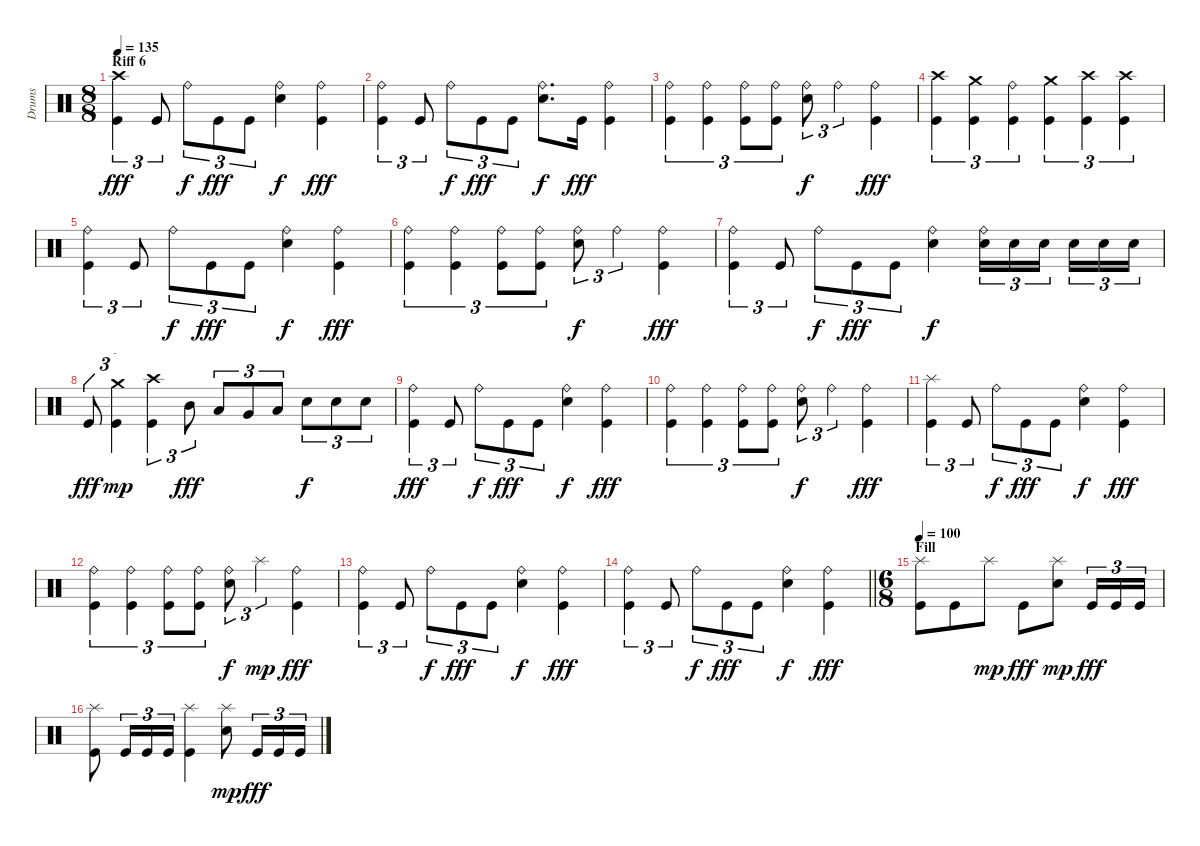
\track ("Drums" "Drums") {instrument percussion}
\staff
\articulation defaults
\ts (8 8)
\section ("" "Riff 6")
\tempo 135
\clef neutral
\ks c
("Crash high (hit)" "Kick (hit)").4{tu (3 2) dy fff} "Kick (hit)".8{tu (3 2)} "Ride (bell)".8{tu (3 2) dy f} "Kick (hit)".8{tu (3 2) dy fff} "Kick (hit)".8{tu (3 2)} ("Ride (bell)" "Snare (hit) 2").4{dy f} ("Ride (bell)" "Kick (hit)").4{dy fff} |
("Ride (bell)" "Kick (hit)").4{tu (3 2)} "Kick (hit)".8{tu (3 2)} "Ride (bell)".8{tu (3 2) dy f} "Kick (hit)".8{tu (3 2) dy fff} "Kick (hit)".8{tu (3 2)} ("Ride (bell)" "Snare (hit) 2").8{d dy f} "Kick (hit)".16{dy fff} ("Ride (bell)" "Kick (hit)").4 |
("Ride (bell)" "Kick (hit)").4{tu (3 2)} ("Ride (bell)" "Kick (hit)").4{tu (3 2)} ("Ride (bell)" "Kick (hit)").8{tu (3 2)} ("Ride (bell)" "Kick (hit)").8{tu (3 2)} ("Ride (bell)" "Snare (hit) 2").8{tu (3 2) dy f} "Ride (bell)".4{tu (3 2)} ("Ride (bell)" "Kick (hit)").4{dy fff} |
("Crash high (hit)" "Kick (hit)").4{tu (3 2)} ("Crash medium (hit)" "Kick (hit)").4{tu (3 2)} ("Ride (bell)" "Kick (hit)").4{tu (3 2)} ("Crash medium (hit)" "Kick (hit)").4{tu (3 2)} ("Crash high (hit)" "Kick (hit)").4{tu (3 2)} ("Crash high (hit)" "Kick (hit)").4{tu (3 2)} |
("Ride (bell)" "Kick (hit)").4{tu (3 2)} "Kick (hit)".8{tu (3 2)} "Ride (bell)".8{tu (3 2) dy f} "Kick (hit)".8{tu (3 2) dy fff} "Kick (hit)".8{tu (3 2)} ("Ride (bell)" "Snare (hit) 2").4{dy f} ("Ride (bell)" "Kick (hit)").4{dy fff} |
("Ride (bell)" "Kick (hit)").4{tu (3 2)} ("Ride (bell)" "Kick (hit)").4{tu (3 2)} ("Ride (bell)" "Kick (hit)").8{tu (3 2)} ("Ride (bell)" "Kick (hit)").8{tu (3 2)} ("Ride (bell)" "Snare (hit) 2").8{tu (3 2) dy f} "Ride (bell)".4{tu (3 2)} ("Ride (bell)" "Kick (hit)").4{dy fff} |
("Ride (bell)" "Kick (hit)").4{tu (3 2)} "Kick (hit)".8{tu (3 2)} "Ride (bell)".8{tu (3 2) dy f} "Kick (hit)".8{tu (3 2) dy fff} "Kick (hit)".8{tu (3 2)} ("Ride (bell)" "Snare (hit) 2").4{dy f} ("Ride (bell)" "Snare (hit) 2").16{tu (3 2)} "Snare (hit) 2".16{tu (3 2)} "Snare (hit) 2".16{tu (3 2)} "Snare (hit) 2".16{tu (3 2)} "Snare (hit) 2".16{tu (3 2)} "Snare (hit) 2".16{tu (3 2)} |
"Kick (hit)".8{tu (3 2) dy fff} ("Crash medium (hit)" "Kick (hit)").4{tu (3 2) dy mp} ("Crash high (hit)" "Kick (hit)").4{tu (3 2)} "Mid Tom (hit)".8{tu (3 2) dy fff} "Low Tom (hit)".8{tu (3 2)} "Very Low Tom (hit)".8{tu (3 2)} "Low Floor Tom (hit)".8{tu (3 2)} "Snare (hit) 2".8{tu (3 2) dy f} "Snare (hit) 2".8{tu (3 2)} "Snare (hit) 2".8{tu (3 2)} |
("Ride (bell)" "Kick (hit)").4{tu (3 2) dy fff} "Kick (hit)".8{tu (3 2)} "Ride (bell)".8{tu (3 2) dy f} "Kick (hit)".8{tu (3 2) dy fff} "Kick (hit)".8{tu (3 2)} ("Ride (bell)" "Snare (hit) 2").4{dy f} ("Ride (bell)" "Kick (hit)").4{dy fff} |
("Ride (bell)" "Kick (hit)").4{tu (3 2)} ("Ride (bell)" "Kick (hit)").4{tu (3 2)} ("Ride (bell)" "Kick (hit)").8{tu (3 2)} ("Ride (bell)" "Kick (hit)").8{tu (3 2)} ("Ride (bell)" "Snare (hit) 2").8{tu (3 2) dy f} "Ride (bell)".4{tu (3 2)} ("Ride (bell)" "Kick (hit)").4{dy fff} |
("Splash (hit)" "Kick (hit)").4{tu (3 2)} "Kick (hit)".8{tu (3 2)} "Ride (bell)".8{tu (3 2) dy f} "Kick (hit)".8{tu (3 2) dy fff} "Kick (hit)".8{tu (3 2)} ("Ride (bell)" "Snare (hit) 2").4{dy f} ("Ride (bell)" "Kick (hit)").4{dy fff} |
("Ride (bell)" "Kick (hit)").4{tu (3 2)} ("Ride (bell)" "Kick (hit)").4{tu (3 2)} ("Ride (bell)" "Kick (hit)").8{tu (3 2)} ("Ride (bell)" "Kick (hit)").8{tu (3 2)} ("Ride (bell)" "Snare (hit) 2").8{tu (3 2) dy f} "Splash (hit)".4{tu (3 2) dy mp} ("Ride (bell)" "Kick (hit)").4{dy fff} |
("Ride (bell)" "Kick (hit)").4{tu (3 2)} "Kick (hit)".8{tu (3 2)} "Ride (bell)".8{tu (3 2) dy f} "Kick (hit)".8{tu (3 2) dy fff} "Kick (hit)".8{tu (3 2)} ("Ride (bell)" "Snare (hit) 2").4{dy f} ("Ride (bell)" "Kick (hit)").4{dy fff} |
\barLineRight lightlight
("Ride (bell)" "Kick (hit)").4{tu (3 2)} "Kick (hit)".8{tu (3 2)} "Ride (bell)".8{tu (3 2) dy f} "Kick (hit)".8{tu (3 2) dy fff} "Kick (hit)".8{tu (3 2)} ("Ride (bell)" "Snare (hit) 2").4{dy f} ("Ride (bell)" "Kick (hit)").4{dy fff} |
\ts (6 8)
\section ("" "Fill")
\tempo 100
("Splash (hit)" "Kick (hit)").8 "Kick (hit)".8 "Splash (hit)".8{dy mp} "Kick (hit)".8{dy fff} ("Splash (hit)" "Snare (hit) 2").8{dy mp} "Kick (hit)".16{tu (3 2) dy fff} "Kick (hit)".16{tu (3 2)} "Kick (hit)".16{tu (3 2)} |
("Splash (hit)" "Kick (hit)").8 "Kick (hit)".16{tu (3 2)} "Kick (hit)".16{tu (3 2)} "Kick (hit)".16{tu (3 2)} ("Splash (hit)" "Kick (hit)").4 ("Splash (hit)" "Snare (hit) 2").8{dy mp} "Kick (hit)".16{tu (3 2) dy fff} "Kick (hit)".16{tu (3 2)} "Kick (hit)".16{tu (3 2)}
